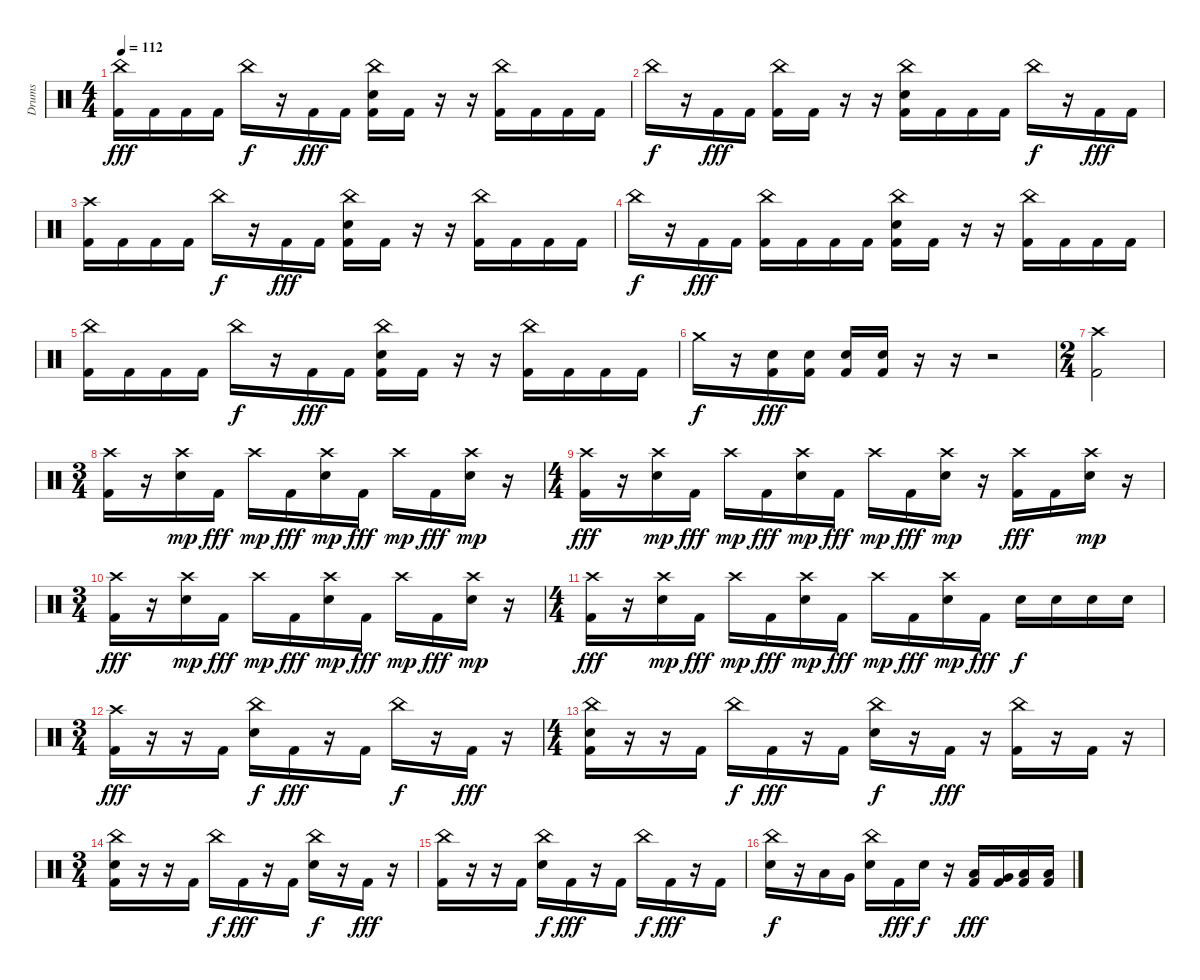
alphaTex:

\track ("Drums" "Drums") {instrument percussion}
\staff
\articulation defaults
\ts (4 4)
\tempo 112
\clef neutral
\ks c
("China (hit)" "Kick (hit) 2").16{dy fff} "Kick (hit) 2".16 "Kick (hit) 2".16 "Kick (hit) 2".16 "China (hit)".16{dy f} r.16 "Kick (hit) 2".16{dy fff} "Kick (hit) 2".16 ("China (hit)" "Electric Snare (hit)" "Kick (hit) 2").16 "Kick (hit) 2".16 r.16 r.16 ("China (hit)" "Kick (hit) 2").16 "Kick (hit) 2".16 "Kick (hit) 2".16 "Kick (hit) 2".16 |
"China (hit)".16{dy f} r.16 "Kick (hit) 2".16{dy fff} "Kick (hit) 2".16 ("China (hit)" "Kick (hit) 2").16 "Kick (hit) 2".16 r.16 r.16 ("China (hit)" "Electric Snare (hit)" "Kick (hit) 2").16 "Kick (hit) 2".16 "Kick (hit) 2".16 "Kick (hit) 2".16 "China (hit)".16{dy f} r.16 "Kick (hit) 2".16{dy fff} "Kick (hit) 2".16 |
("Crash high (hit)" "Kick (hit) 2").16 "Kick (hit) 2".16 "Kick (hit) 2".16 "Kick (hit) 2".16 "China (hit)".16{dy f} r.16 "Kick (hit) 2".16{dy fff} "Kick (hit) 2".16 ("China (hit)" "Electric Snare (hit)" "Kick (hit) 2").16 "Kick (hit) 2".16 r.16 r.16 ("China (hit)" "Kick (hit) 2").16 "Kick (hit) 2".16 "Kick (hit) 2".16 "Kick (hit) 2".16 |
"China (hit)".16{dy f} r.16 "Kick (hit) 2".16{dy fff} "Kick (hit) 2".16 ("China (hit)" "Kick (hit) 2").16 "Kick (hit) 2".16 "Kick (hit) 2".16 "Kick (hit) 2".16 ("China (hit)" "Electric Snare (hit)" "Kick (hit) 2").16 "Kick (hit) 2".16 r.16 r.16 ("China (hit)" "Kick (hit) 2").16 "Kick (hit) 2".16 "Kick (hit) 2".16 "Kick (hit) 2".16 |
("China (hit)" "Kick (hit) 2").16 "Kick (hit) 2".16 "Kick (hit) 2".16 "Kick (hit) 2".16 "China (hit)".16{dy f} r.16 "Kick (hit) 2".16{dy fff} "Kick (hit) 2".16 ("China (hit)" "Electric Snare (hit)" "Kick (hit) 2").16 "Kick (hit) 2".16 r.16 r.16 ("China (hit)" "Kick (hit) 2").16 "Kick (hit) 2".16 "Kick (hit) 2".16 "Kick (hit) 2".16 |
"Crash medium (hit)".16{dy f} r.16 ("Electric Snare (hit)" "Kick (hit) 2").16{dy fff} ("Electric Snare (hit)" "Kick (hit) 2").16 ("Electric Snare (hit)" "Kick (hit) 2").16 ("Electric Snare (hit)" "Kick (hit) 2").16 r.16 r.16 r.2 |
\ts (2 4)
("Crash high (hit)" "Kick (hit) 2").2 |
\ts (3 4)
("Crash high (hit)" "Kick (hit) 2").16 r.16 ("Crash high (hit)" "Electric Snare (hit)").16{dy mp} "Kick (hit) 2".16{dy fff} "Crash high (hit)".16{dy mp} "Kick (hit) 2".16{dy fff} ("Crash high (hit)" "Electric Snare (hit)").16{dy mp} "Kick (hit) 2".16{dy fff} "Crash high (hit)".16{dy mp} "Kick (hit) 2".16{dy fff} ("Crash high (hit)" "Electric Snare (hit)").16{dy mp} r.16 |
\ts (4 4)
("Crash high (hit)" "Kick (hit) 2").16{dy fff} r.16 ("Crash high (hit)" "Electric Snare (hit)").16{dy mp} "Kick (hit) 2".16{dy fff} "Crash high (hit)".16{dy mp} "Kick (hit) 2".16{dy fff} ("Crash high (hit)" "Electric Snare (hit)").16{dy mp} "Kick (hit) 2".16{dy fff} "Crash high (hit)".16{dy mp} "Kick (hit) 2".16{dy fff} ("Crash high (hit)" "Electric Snare (hit)").16{dy mp} r.16 ("Crash high (hit)" "Kick (hit) 2").16{dy fff} "Kick (hit) 2".16 ("Crash high (hit)" "Electric Snare (hit)").16{dy mp} r.16 |
\ts (3 4)
("Crash high (hit)" "Kick (hit) 2").16{dy fff} r.16 ("Crash high (hit)" "Electric Snare (hit)").16{dy mp} "Kick (hit) 2".16{dy fff} "Crash high (hit)".16{dy mp} "Kick (hit) 2".16{dy fff} ("Crash high (hit)" "Electric Snare (hit)").16{dy mp} "Kick (hit) 2".16{dy fff} "Crash high (hit)".16{dy mp} "Kick (hit) 2".16{dy fff} ("Crash high (hit)" "Electric Snare (hit)").16{dy mp} r.16 |
\ts (4 4)
("Crash high (hit)" "Kick (hit) 2").16{dy fff} r.16 ("Crash high (hit)" "Electric Snare (hit)").16{dy mp} "Kick (hit) 2".16{dy fff} "Crash high (hit)".16{dy mp} "Kick (hit) 2".16{dy fff} ("Crash high (hit)" "Electric Snare (hit)").16{dy mp} "Kick (hit) 2".16{dy fff} "Crash high (hit)".16{dy mp} "Kick (hit) 2".16{dy fff} ("Crash high (hit)" "Electric Snare (hit)").16{dy mp} "Kick (hit) 2".16{dy fff} "Electric Snare (hit)".16{dy f} "Electric Snare (hit)".16 "Electric Snare (hit)".16 "Electric Snare (hit)".16 |
\ts (3 4)
("Crash high (hit)" "Kick (hit) 2").16{dy fff} r.16 r.16 "Kick (hit) 2".16 ("China (hit)" "Electric Snare (hit)").16{dy f} "Kick (hit) 2".16{dy fff} r.16 "Kick (hit) 2".16 "China (hit)".16{dy f} r.16 "Kick (hit) 2".16{dy fff} r.16 |
\ts (4 4)
("China (hit)" "Electric Snare (hit)" "Kick (hit) 2").16 r.16 r.16 "Kick (hit) 2".16 "China (hit)".16{dy f} "Kick (hit) 2".16{dy fff} r.16 "Kick (hit) 2".16 ("China (hit)" "Electric Snare (hit)").16{dy f} r.16 "Kick (hit) 2".16{dy fff} r.16 ("China (hit)" "Kick (hit) 2").16 r.16 "Kick (hit) 2".16 r.16 |
\ts (3 4)
("China (hit)" "Electric Snare (hit)" "Kick (hit) 2").16 r.16 r.16 "Kick (hit) 2".16 "China (hit)".16{dy f} "Kick (hit) 2".16{dy fff} r.16 "Kick (hit) 2".16 ("China (hit)" "Electric Snare (hit)").16{dy f} r.16 "Kick (hit) 2".16{dy fff} r.16 |
("China (hit)" "Kick (hit) 2").16 r.16 r.16 "Kick (hit) 2".16 ("China (hit)" "Electric Snare (hit)").16{dy f} "Kick (hit) 2".16{dy fff} r.16 "Kick (hit) 2".16 "China (hit)".16{dy f} "Kick (hit) 2".16{dy fff} r.16 "Kick (hit) 2".16 |
("China (hit)" "Electric Snare (hit)").16{dy f} r.16 "Low Tom (hit)".16 "Very Low Tom (hit)".16 ("China (hit)" "Electric Snare (hit)").16 "Kick (hit) 2".16{dy fff} "Electric Snare (hit)".16{dy f} r.16 ("Low Tom (hit)" "Kick (hit) 2").16{dy fff} ("Very Low Tom (hit)" "Kick (hit) 2").16 ("Low Floor Tom (hit)" "Kick (hit) 2").16 ("Low Floor Tom (hit)" "Kick (hit) 2").16
